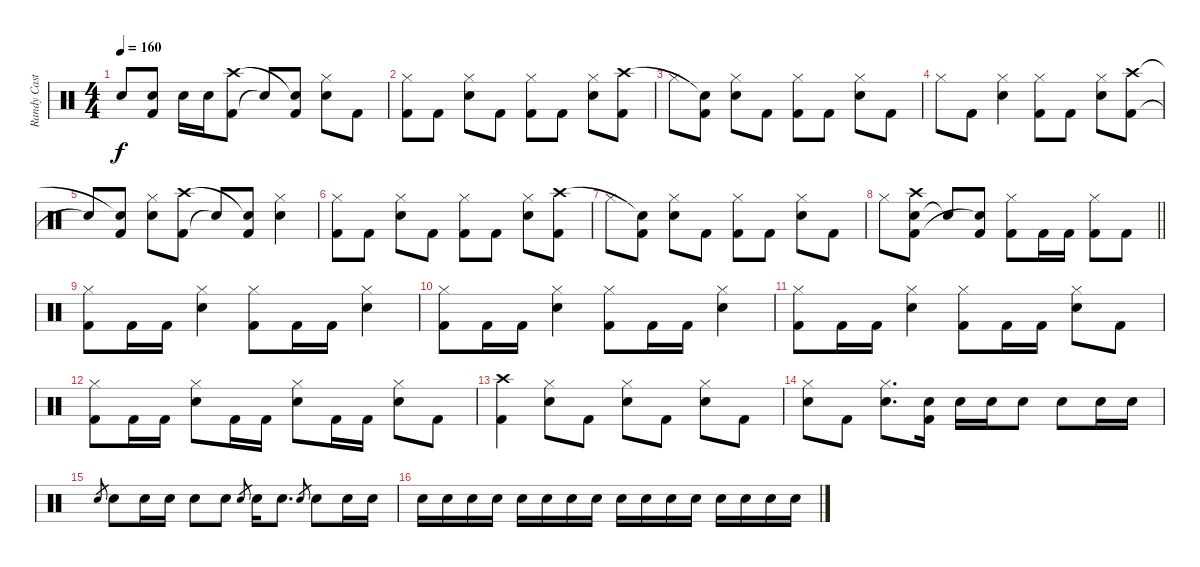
\track ("Randy Castillo" "Randy Cast") {instrument percussion}
\staff {score}
\articulation defaults
\ts (4 4)
\tempo 160
\clef neutral
\ks aminor "Snare (hit)"{t}.8{dy f}
("Kick (hit) 2" "Snare (hit)"{t}).8 "Snare (hit) 2".16 "Snare (hit) 2".16 ("Kick (hit) 2" "Crash high (hit)").8 "Snare (hit)"{t}.8 ("Kick (hit) 2" "Snare (hit)"{t}).8 ("Hi-Hat (closed)" "Snare (hit) 2").8 "Kick (hit) 2".8 |
("Hi-Hat (closed)" "Kick (hit) 2").8 "Kick (hit) 2".8 ("Hi-Hat (closed)" "Snare (hit) 2").8 "Kick (hit) 2".8 ("Hi-Hat (closed)" "Kick (hit) 2").8 "Kick (hit) 2".8 ("Hi-Hat (closed)" "Snare (hit) 2").8 ("Kick (hit) 2" "Crash high (hit)").8 |
"Hi-Hat (closed)".8 ("Kick (hit) 2" "Snare (hit)"{t}).8 ("Hi-Hat (closed)" "Snare (hit) 2").8 "Kick (hit) 2".8 ("Hi-Hat (closed)" "Kick (hit) 2").8 "Kick (hit) 2".8 ("Hi-Hat (closed)" "Snare (hit) 2").8 "Kick (hit) 2".8 |
"Hi-Hat (closed)".8 "Kick (hit) 2".8 ("Hi-Hat (closed)" "Snare (hit) 2").4 ("Hi-Hat (closed)" "Kick (hit) 2").8 "Kick (hit) 2".8 ("Hi-Hat (closed)" "Snare (hit) 2").8 ("Kick (hit) 2" "Crash high (hit)").8 |
"Snare (hit)"{t}.8 ("Kick (hit) 2" "Snare (hit)"{t}).8 ("Hi-Hat (closed)" "Snare (hit) 2").8 ("Kick (hit) 2" "Crash high (hit)").8 "Snare (hit)"{t}.8 ("Kick (hit) 2" "Snare (hit)"{t}).8 ("Hi-Hat (closed)" "Snare (hit) 2").4 |
("Hi-Hat (closed)" "Kick (hit) 2").8 "Kick (hit) 2".8 ("Hi-Hat (closed)" "Snare (hit) 2").8 "Kick (hit) 2".8 ("Hi-Hat (closed)" "Kick (hit) 2").8 "Kick (hit) 2".8 ("Hi-Hat (closed)" "Snare (hit) 2").8 ("Kick (hit) 2" "Crash high (hit)").8 |
"Hi-Hat (closed)".8 ("Kick (hit) 2" "Snare (hit)"{t}).8 ("Hi-Hat (closed)" "Snare (hit) 2").8 "Kick (hit) 2".8 ("Hi-Hat (closed)" "Kick (hit) 2").8 "Kick (hit) 2".8 ("Hi-Hat (closed)" "Snare (hit) 2").8 "Kick (hit) 2".8 |
\barLineRight lightlight "Hi-Hat (closed)".8
("Snare (hit) 2" "Kick (hit) 2" "Crash high (hit)").8 "Snare (hit)"{t}.8 ("Kick (hit) 2" "Snare (hit)"{t}).8 ("Hi-Hat (closed)" "Kick (hit) 2").8 "Kick (hit) 2".16 "Kick (hit) 2".16 ("Hi-Hat (closed)" "Kick (hit) 2").8 "Kick (hit) 2".8 |
("Hi-Hat (closed)" "Kick (hit) 2").8 "Kick (hit) 2".16 "Kick (hit) 2".16 ("Hi-Hat (closed)" "Snare (hit) 2").4 ("Hi-Hat (closed)" "Kick (hit) 2").8 "Kick (hit) 2".16 "Kick (hit) 2".16 ("Hi-Hat (closed)" "Snare (hit) 2").4 |
("Hi-Hat (closed)" "Kick (hit) 2").8 "Kick (hit) 2".16 "Kick (hit) 2".16 ("Hi-Hat (closed)" "Snare (hit) 2").4 ("Hi-Hat (closed)" "Kick (hit) 2").8 "Kick (hit) 2".16 "Kick (hit) 2".16 ("Hi-Hat (closed)" "Snare (hit) 2").4 |
("Hi-Hat (closed)" "Kick (hit) 2").8 "Kick (hit) 2".16 "Kick (hit) 2".16 ("Hi-Hat (closed)" "Snare (hit) 2").4 ("Hi-Hat (closed)" "Kick (hit) 2").8 "Kick (hit) 2".16 "Kick (hit) 2".16 ("Hi-Hat (closed)" "Snare (hit) 2").8 "Kick (hit) 2".8 |
("Hi-Hat (closed)" "Kick (hit) 2").8 "Kick (hit) 2".16 "Kick (hit) 2".16 ("Hi-Hat (closed)" "Snare (hit) 2").8 "Kick (hit) 2".16 "Kick (hit) 2".16 ("Hi-Hat (closed)" "Snare (hit) 2").8 "Kick (hit) 2".16 "Kick (hit) 2".16 ("Hi-Hat (closed)" "Snare (hit) 2").8 "Kick (hit) 2".8 |
("Kick (hit) 2" "Crash high (hit)").4 ("Hi-Hat (closed)" "Snare (hit) 2").8 "Kick (hit) 2".8 ("Hi-Hat (closed)" "Snare (hit) 2").8 "Kick (hit) 2".8 ("Hi-Hat (closed)" "Snare (hit) 2").8 "Kick (hit) 2".8 |
("Hi-Hat (closed)" "Snare (hit) 2").8 "Kick (hit) 2".8 ("Hi-Hat (closed)" "Snare (hit) 2").8{d} ("Snare (hit) 2" "Kick (hit) 2").16 "Snare (hit) 2".16 "Snare (hit) 2".16 "Snare (hit) 2".8 "Snare (hit) 2".8 "Snare (hit) 2".16 "Snare (hit) 2".16 |
"Snare (hit) 2".8{gr} "Snare (hit) 2".8 "Snare (hit) 2".16 "Snare (hit) 2".16 "Snare (hit) 2".8 "Snare (hit) 2".8 "Snare (hit) 2".8{gr} "Snare (hit) 2".16 "Snare (hit) 2".8{d} "Snare (hit) 2".8{gr} "Snare (hit) 2".8 "Snare (hit) 2".16 "Snare (hit) 2".16 |
"Snare (hit) 2".16 "Snare (hit) 2".16 "Snare (hit) 2".16 "Snare (hit) 2".16 "Snare (hit) 2".16 "Snare (hit) 2".16 "Snare (hit) 2".16 "Snare (hit) 2".16 "Snare (hit) 2".16 "Snare (hit) 2".16 "Snare (hit) 2".16 "Snare (hit) 2".16 "Snare (hit) 2".16 "Snare (hit) 2".16 "Snare (hit) 2".16 "Snare (hit) 2".16
